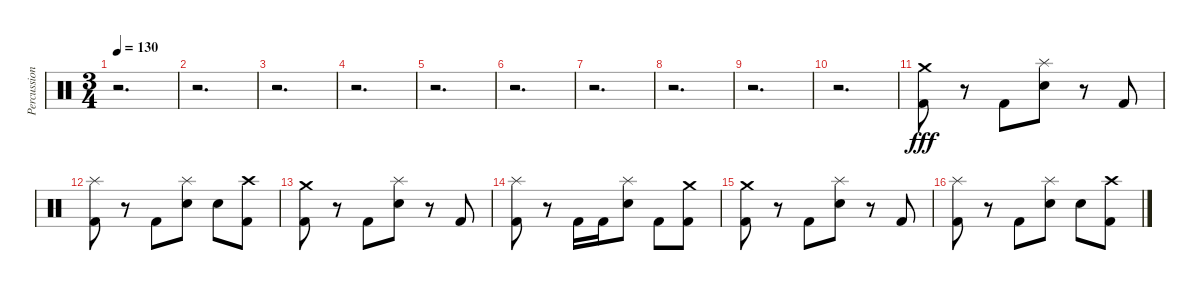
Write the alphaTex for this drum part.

\track ("Percussion" "Percussion") {instrument percussion}
\staff {score}
\articulation defaults
\ts (3 4)
\tempo 130
\clef neutral
\ks c
r.2{d dy fff} |
r.2{d} |
r.2{d} |
r.2{d} |
r.2{d} |
r.2{d} |
r.2{d} |
r.2{d} |
r.2{d} |
r.2{d} |
("Crash medium (hit)" "Kick (hit) 2").8 r.8 "Kick (hit) 2".8 ("Splash (hit)" "Snare (hit) 2").8 r.8 "Kick (hit) 2".8 |
("Splash (hit)" "Kick (hit) 2").8 r.8 "Kick (hit) 2".8 ("Splash (hit)" "Snare (hit) 2").8 "Snare (hit) 2".8 ("Crash high (hit)" "Kick (hit) 2").8 |
("Crash medium (hit)" "Kick (hit) 2").8 r.8 "Kick (hit) 2".8 ("Splash (hit)" "Snare (hit) 2").8 r.8 "Kick (hit) 2".8 |
("Splash (hit)" "Kick (hit) 2").8 r.8 "Kick (hit) 2".16 "Kick (hit) 2".16 ("Splash (hit)" "Snare (hit) 2").8 "Kick (hit) 2".8 ("Crash medium (hit)" "Kick (hit) 2").8 |
("Crash medium (hit)" "Kick (hit) 2").8 r.8 "Kick (hit) 2".8 ("Splash (hit)" "Snare (hit) 2").8 r.8 "Kick (hit) 2".8 |
("Splash (hit)" "Kick (hit) 2").8 r.8 "Kick (hit) 2".8 ("Splash (hit)" "Snare (hit) 2").8 "Snare (hit) 2".8 ("Crash high (hit)" "Kick (hit) 2").8
